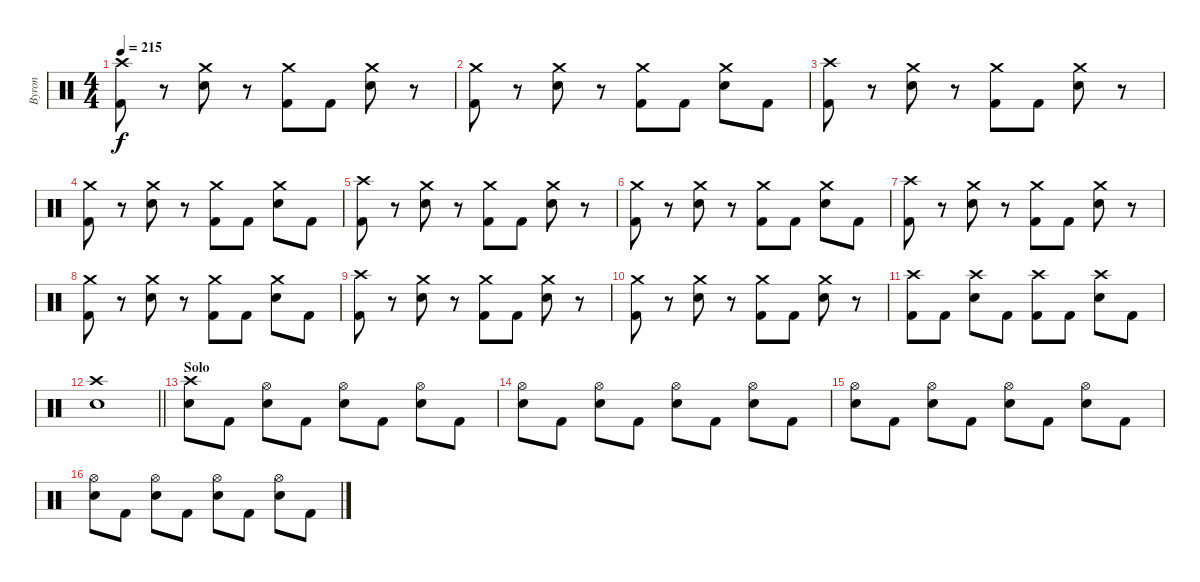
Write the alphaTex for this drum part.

\track ("Byron" "Byron") {instrument percussion}
\staff {score}
\articulation defaults
\ts (4 4)
\tempo 215
\clef neutral
\ks c
("Crash high (hit)" "Kick (hit) 2").8{dy f} r.8 ("Crash medium (hit)" "Electric Snare (hit)").8 r.8 ("Crash medium (hit)" "Kick (hit) 2").8 "Kick (hit) 2".8 ("Crash medium (hit)" "Electric Snare (hit)").8 r.8 |
("Crash medium (hit)" "Kick (hit) 2").8 r.8 ("Crash medium (hit)" "Electric Snare (hit)").8 r.8 ("Crash medium (hit)" "Kick (hit) 2").8 "Kick (hit) 2".8 ("Crash medium (hit)" "Electric Snare (hit)").8 "Kick (hit) 2".8 |
("Crash high (hit)" "Kick (hit) 2").8 r.8 ("Crash medium (hit)" "Electric Snare (hit)").8 r.8 ("Crash medium (hit)" "Kick (hit) 2").8 "Kick (hit) 2".8 ("Crash medium (hit)" "Electric Snare (hit)").8 r.8 |
("Crash medium (hit)" "Kick (hit) 2").8 r.8 ("Crash medium (hit)" "Electric Snare (hit)").8 r.8 ("Crash medium (hit)" "Kick (hit) 2").8 "Kick (hit) 2".8 ("Crash medium (hit)" "Electric Snare (hit)").8 "Kick (hit) 2".8 |
("Crash high (hit)" "Kick (hit) 2").8 r.8 ("Crash medium (hit)" "Electric Snare (hit)").8 r.8 ("Crash medium (hit)" "Kick (hit) 2").8 "Kick (hit) 2".8 ("Crash medium (hit)" "Electric Snare (hit)").8 r.8 |
("Crash medium (hit)" "Kick (hit) 2").8 r.8 ("Crash medium (hit)" "Electric Snare (hit)").8 r.8 ("Crash medium (hit)" "Kick (hit) 2").8 "Kick (hit) 2".8 ("Crash medium (hit)" "Electric Snare (hit)").8 "Kick (hit) 2".8 |
("Crash high (hit)" "Kick (hit) 2").8 r.8 ("Crash medium (hit)" "Electric Snare (hit)").8 r.8 ("Crash medium (hit)" "Kick (hit) 2").8 "Kick (hit) 2".8 ("Crash medium (hit)" "Electric Snare (hit)").8 r.8 |
("Crash medium (hit)" "Kick (hit) 2").8 r.8 ("Crash medium (hit)" "Electric Snare (hit)").8 r.8 ("Crash medium (hit)" "Kick (hit) 2").8 "Kick (hit) 2".8 ("Crash medium (hit)" "Electric Snare (hit)").8 "Kick (hit) 2".8 |
("Crash high (hit)" "Kick (hit) 2").8 r.8 ("Crash medium (hit)" "Electric Snare (hit)").8 r.8 ("Crash medium (hit)" "Kick (hit) 2").8 "Kick (hit) 2".8 ("Crash medium (hit)" "Electric Snare (hit)").8 r.8 |
("Crash medium (hit)" "Kick (hit) 2").8 r.8 ("Crash medium (hit)" "Electric Snare (hit)").8 r.8 ("Crash medium (hit)" "Kick (hit) 2").8 "Kick (hit) 2".8 ("Crash medium (hit)" "Electric Snare (hit)").8 r.8 |
("Crash high (hit)" "Kick (hit) 2").8 "Kick (hit) 2".8 ("Crash high (hit)" "Electric Snare (hit)").8 "Kick (hit) 2".8 ("Crash high (hit)" "Kick (hit) 2").8 "Kick (hit) 2".8 ("Crash high (hit)" "Electric Snare (hit)").8 "Kick (hit) 2".8 |
\barLineRight lightlight
("Crash high (hit)" "Electric Snare (hit)").1 |
\section ("" "Solo")
("Crash high (hit)" "Electric Snare (hit)").8 "Kick (hit) 2".8 ("Hi-Hat (open)" "Electric Snare (hit)").8 "Kick (hit) 2".8 ("Hi-Hat (open)" "Electric Snare (hit)").8 "Kick (hit) 2".8 ("Hi-Hat (open)" "Electric Snare (hit)").8 "Kick (hit) 2".8 |
("Hi-Hat (open)" "Electric Snare (hit)").8 "Kick (hit) 2".8 ("Hi-Hat (open)" "Electric Snare (hit)").8 "Kick (hit) 2".8 ("Hi-Hat (open)" "Electric Snare (hit)").8 "Kick (hit) 2".8 ("Hi-Hat (open)" "Electric Snare (hit)").8 "Kick (hit) 2".8 |
("Hi-Hat (open)" "Electric Snare (hit)").8 "Kick (hit) 2".8 ("Hi-Hat (open)" "Electric Snare (hit)").8 "Kick (hit) 2".8 ("Hi-Hat (open)" "Electric Snare (hit)").8 "Kick (hit) 2".8 ("Hi-Hat (open)" "Electric Snare (hit)").8 "Kick (hit) 2".8 |
("Hi-Hat (open)" "Electric Snare (hit)").8 "Kick (hit) 2".8 ("Hi-Hat (open)" "Electric Snare (hit)").8 "Kick (hit) 2".8 ("Hi-Hat (open)" "Electric Snare (hit)").8 "Kick (hit) 2".8 ("Hi-Hat (open)" "Electric Snare (hit)").8 "Kick (hit) 2".8
